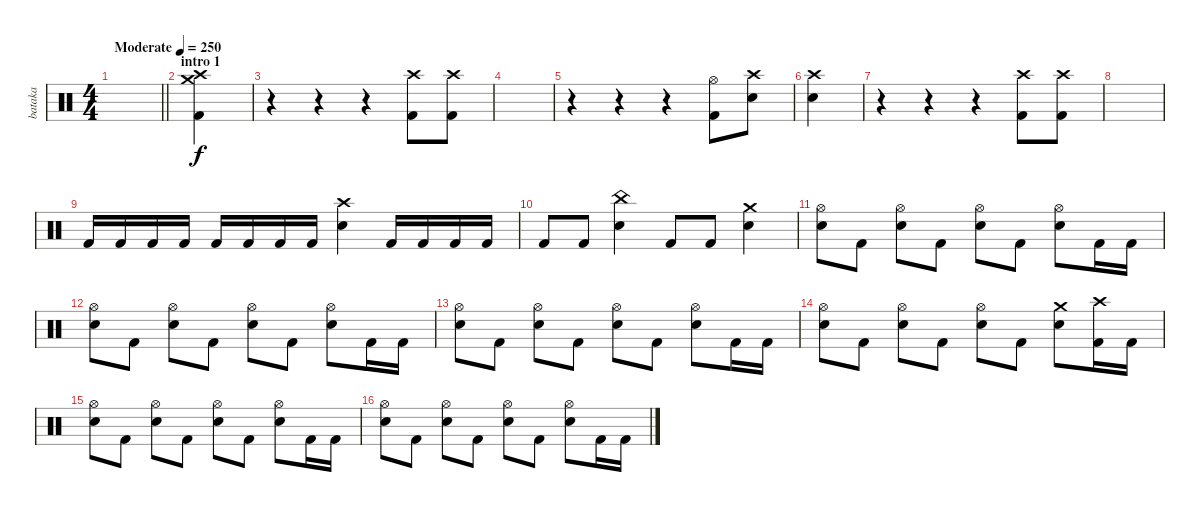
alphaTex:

\track ("bataka" "bataka") {instrument percussion}
\staff {score}
\articulation defaults
\ts (4 4)
\tempo (250 "Moderate")
\clef neutral
\barLineRight lightlight
\ks c
|
\section ("" "intro 1")
("Crash medium (hit)" "Crash high (hit)" "Kick (hit) 2").4 |
r.4 r.4 r.4 ("Crash high (hit)" "Kick (hit) 2").8 ("Crash high (hit)" "Kick (hit) 2").8 |
|
r.4 r.4 r.4 ("Hi-Hat (open)" "Kick (hit) 2").8 ("Crash high (hit)" "Electric Snare (hit)").8 |
("Crash high (hit)" "Electric Snare (hit)").4 |
r.4 r.4 r.4 ("Crash high (hit)" "Kick (hit) 2").8 ("Crash high (hit)" "Kick (hit) 2").8 |
|
"Kick (hit) 2".16 "Kick (hit) 2".16 "Kick (hit) 2".16 "Kick (hit) 2".16 "Kick (hit) 2".16 "Kick (hit) 2".16 "Kick (hit) 2".16 "Kick (hit) 2".16 ("Crash high (hit)" "Electric Snare (hit)").4 "Kick (hit) 2".16 "Kick (hit) 2".16 "Kick (hit) 2".16 "Kick (hit) 2".16 |
"Kick (hit) 2".8 "Kick (hit) 2".8 ("China (hit)" "Electric Snare (hit)").4 "Kick (hit) 2".8 "Kick (hit) 2".8 ("Crash medium (hit)" "Electric Snare (hit)").4 |
("Hi-Hat (open)" "Electric Snare (hit)").8 "Kick (hit) 2".8 ("Hi-Hat (open)" "Electric Snare (hit)").8 "Kick (hit) 2".8 ("Hi-Hat (open)" "Electric Snare (hit)").8 "Kick (hit) 2".8 ("Hi-Hat (open)" "Electric Snare (hit)").8 "Kick (hit) 2".16 "Kick (hit) 2".16 |
("Hi-Hat (open)" "Electric Snare (hit)").8 "Kick (hit) 2".8 ("Hi-Hat (open)" "Electric Snare (hit)").8 "Kick (hit) 2".8 ("Hi-Hat (open)" "Electric Snare (hit)").8 "Kick (hit) 2".8 ("Hi-Hat (open)" "Electric Snare (hit)").8 "Kick (hit) 2".16 "Kick (hit) 2".16 |
("Hi-Hat (open)" "Electric Snare (hit)").8 "Kick (hit) 2".8 ("Hi-Hat (open)" "Electric Snare (hit)").8 "Kick (hit) 2".8 ("Hi-Hat (open)" "Electric Snare (hit)").8 "Kick (hit) 2".8 ("Hi-Hat (open)" "Electric Snare (hit)").8 "Kick (hit) 2".16 "Kick (hit) 2".16 |
("Hi-Hat (open)" "Electric Snare (hit)").8 "Kick (hit) 2".8 ("Hi-Hat (open)" "Electric Snare (hit)").8 "Kick (hit) 2".8 ("Hi-Hat (open)" "Electric Snare (hit)").8 "Kick (hit) 2".8 ("Crash medium (hit)" "Electric Snare (hit)").8 ("Crash high (hit)" "Kick (hit) 2").16 "Kick (hit) 2".16 |
("Hi-Hat (open)" "Electric Snare (hit)").8 "Kick (hit) 2".8 ("Hi-Hat (open)" "Electric Snare (hit)").8 "Kick (hit) 2".8 ("Hi-Hat (open)" "Electric Snare (hit)").8 "Kick (hit) 2".8 ("Hi-Hat (open)" "Electric Snare (hit)").8 "Kick (hit) 2".16 "Kick (hit) 2".16 |
("Hi-Hat (open)" "Electric Snare (hit)").8 "Kick (hit) 2".8 ("Hi-Hat (open)" "Electric Snare (hit)").8 "Kick (hit) 2".8 ("Hi-Hat (open)" "Electric Snare (hit)").8 "Kick (hit) 2".8 ("Hi-Hat (open)" "Electric Snare (hit)").8 "Kick (hit) 2".16 "Kick (hit) 2".16
